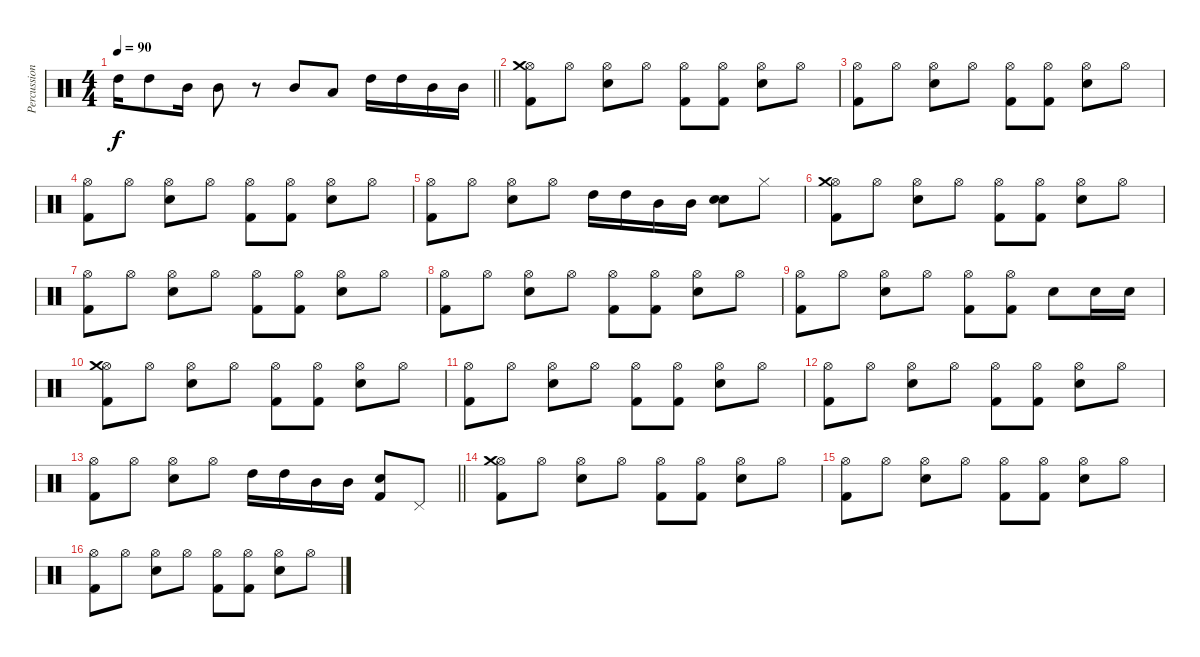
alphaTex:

\track ("Percussion" "Percussion") {instrument percussion}
\staff {score}
\articulation defaults
\ts (4 4)
\tempo 90
\clef neutral
\barLineRight lightlight
\ks c "High Tom (hit)".16{dy f} "High Tom (hit)".8 "Mid Tom (hit)".16 "Mid Tom (hit)".8
r.8 "Mid Tom (hit)".8 "Low Tom (hit)".8 "High Tom (hit)".16 "High Tom (hit)".16 "Mid Tom (hit)".16 "Mid Tom (hit)".16 |
("Hi-Hat (open)" "Kick (hit) 2" "Crash medium (hit)").8 "Hi-Hat (open)".8 ("Hi-Hat (open)" "Electric Snare (hit)").8 "Hi-Hat (open)".8 ("Hi-Hat (open)" "Kick (hit) 2").8 ("Hi-Hat (open)" "Kick (hit) 2").8 ("Hi-Hat (open)" "Electric Snare (hit)").8 "Hi-Hat (open)".8 |
("Hi-Hat (open)" "Kick (hit) 2").8 "Hi-Hat (open)".8 ("Hi-Hat (open)" "Electric Snare (hit)").8 "Hi-Hat (open)".8 ("Hi-Hat (open)" "Kick (hit) 2").8 ("Hi-Hat (open)" "Kick (hit) 2").8 ("Hi-Hat (open)" "Electric Snare (hit)").8 "Hi-Hat (open)".8 |
("Hi-Hat (open)" "Kick (hit) 2").8 "Hi-Hat (open)".8 ("Hi-Hat (open)" "Electric Snare (hit)").8 "Hi-Hat (open)".8 ("Hi-Hat (open)" "Kick (hit) 2").8 ("Hi-Hat (open)" "Kick (hit) 2").8 ("Hi-Hat (open)" "Electric Snare (hit)").8 "Hi-Hat (open)".8 |
("Hi-Hat (open)" "Kick (hit) 2").8 "Hi-Hat (open)".8 ("Hi-Hat (open)" "Electric Snare (hit)").8 "Hi-Hat (open)".8 "High Tom (hit)".16 "High Tom (hit)".16 "Mid Tom (hit)".16 "Mid Tom (hit)".16 ("Electric Snare (hit)" "Electric Snare (hit)").8 "Hi-Hat (closed)".8 |
("Hi-Hat (open)" "Kick (hit) 2" "Crash medium (hit)").8 "Hi-Hat (open)".8 ("Hi-Hat (open)" "Electric Snare (hit)").8 "Hi-Hat (open)".8 ("Hi-Hat (open)" "Kick (hit) 2").8 ("Hi-Hat (open)" "Kick (hit) 2").8 ("Hi-Hat (open)" "Electric Snare (hit)").8 "Hi-Hat (open)".8 |
("Hi-Hat (open)" "Kick (hit) 2").8 "Hi-Hat (open)".8 ("Hi-Hat (open)" "Electric Snare (hit)").8 "Hi-Hat (open)".8 ("Hi-Hat (open)" "Kick (hit) 2").8 ("Hi-Hat (open)" "Kick (hit) 2").8 ("Hi-Hat (open)" "Electric Snare (hit)").8 "Hi-Hat (open)".8 |
("Hi-Hat (open)" "Kick (hit) 2").8 "Hi-Hat (open)".8 ("Hi-Hat (open)" "Electric Snare (hit)").8 "Hi-Hat (open)".8 ("Hi-Hat (open)" "Kick (hit) 2").8 ("Hi-Hat (open)" "Kick (hit) 2").8 ("Hi-Hat (open)" "Electric Snare (hit)").8 "Hi-Hat (open)".8 |
("Hi-Hat (open)" "Kick (hit) 2").8 "Hi-Hat (open)".8 ("Hi-Hat (open)" "Electric Snare (hit)").8 "Hi-Hat (open)".8 ("Hi-Hat (open)" "Kick (hit) 2").8 ("Kick (hit) 2" "Hi-Hat (open)").8 "Electric Snare (hit)".8 "Electric Snare (hit)".16 "Electric Snare (hit)".16 |
("Hi-Hat (open)" "Kick (hit) 2" "Crash medium (hit)").8 "Hi-Hat (open)".8 ("Hi-Hat (open)" "Electric Snare (hit)").8 "Hi-Hat (open)".8 ("Hi-Hat (open)" "Kick (hit) 2").8 ("Hi-Hat (open)" "Kick (hit) 2").8 ("Hi-Hat (open)" "Electric Snare (hit)").8 "Hi-Hat (open)".8 |
("Hi-Hat (open)" "Kick (hit) 2").8 "Hi-Hat (open)".8 ("Hi-Hat (open)" "Electric Snare (hit)").8 "Hi-Hat (open)".8 ("Hi-Hat (open)" "Kick (hit) 2").8 ("Hi-Hat (open)" "Kick (hit) 2").8 ("Hi-Hat (open)" "Electric Snare (hit)").8 "Hi-Hat (open)".8 |
("Hi-Hat (open)" "Kick (hit) 2").8 "Hi-Hat (open)".8 ("Hi-Hat (open)" "Electric Snare (hit)").8 "Hi-Hat (open)".8 ("Hi-Hat (open)" "Kick (hit) 2").8 ("Hi-Hat (open)" "Kick (hit) 2").8 ("Hi-Hat (open)" "Electric Snare (hit)").8 "Hi-Hat (open)".8 |
\barLineRight lightlight
("Hi-Hat (open)" "Kick (hit) 2").8 "Hi-Hat (open)".8 ("Hi-Hat (open)" "Electric Snare (hit)").8 "Hi-Hat (open)".8 "High Tom (hit)".16 "High Tom (hit)".16 "Mid Tom (hit)".16 "Mid Tom (hit)".16 ("Electric Snare (hit)" "Kick (hit) 2").8 "Pedal Hi-Hat (hit)".8 |
("Hi-Hat (open)" "Kick (hit) 2" "Crash medium (hit)").8 "Hi-Hat (open)".8 ("Hi-Hat (open)" "Electric Snare (hit)").8 "Hi-Hat (open)".8 ("Hi-Hat (open)" "Kick (hit) 2").8 ("Hi-Hat (open)" "Kick (hit) 2").8 ("Hi-Hat (open)" "Electric Snare (hit)").8 "Hi-Hat (open)".8 |
("Hi-Hat (open)" "Kick (hit) 2").8 "Hi-Hat (open)".8 ("Hi-Hat (open)" "Electric Snare (hit)").8 "Hi-Hat (open)".8 ("Hi-Hat (open)" "Kick (hit) 2").8 ("Hi-Hat (open)" "Kick (hit) 2").8 ("Hi-Hat (open)" "Electric Snare (hit)").8 "Hi-Hat (open)".8 |
("Hi-Hat (open)" "Kick (hit) 2").8 "Hi-Hat (open)".8 ("Hi-Hat (open)" "Electric Snare (hit)").8 "Hi-Hat (open)".8 ("Hi-Hat (open)" "Kick (hit) 2").8 ("Hi-Hat (open)" "Kick (hit) 2").8 ("Hi-Hat (open)" "Electric Snare (hit)").8 "Hi-Hat (open)".8
